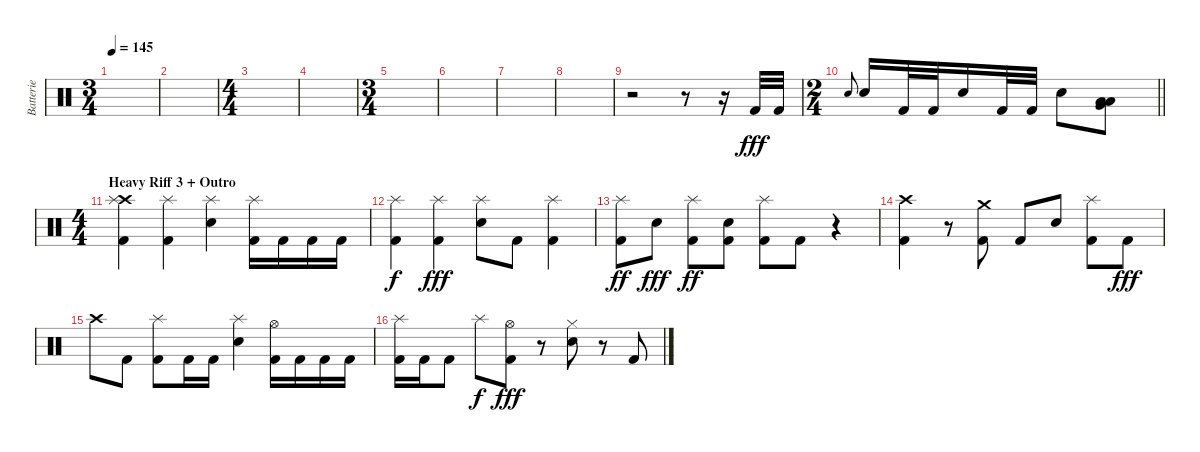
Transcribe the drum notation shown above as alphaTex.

\track ("Batterie" "Batterie") {instrument percussion}
\staff {score}
\articulation defaults
\ts (3 4)
\tempo 145
\clef neutral
\ks c
|
|
\ts (4 4)
|
|
\ts (3 4)
|
|
|
|
r.2 r.8 r.16 "Kick (hit) 2".32{dy fff} "Kick (hit) 2".32 |
\ts (2 4)
\barLineRight lightlight "Electric Snare (hit)".8{gr onbeat} "Electric Snare (hit)".16 "Kick (hit) 2".32 "Kick (hit) 2".32 "Electric Snare (hit)".16 "Kick (hit) 2".32 "Kick (hit) 2".32 "Electric Snare (hit)".8
("Low Tom (hit)" "Very Low Tom (hit)" "Low Floor Tom (hit)").8 |
\ts (4 4)
\section ("" "Heavy Riff 3 + Outro")
("Crash high (hit)" "Splash (hit)" "Kick (hit) 2").4 ("Splash (hit)" "Kick (hit) 2").4 ("Splash (hit)" "Electric Snare (hit)").4 ("Splash (hit)" "Kick (hit) 2").16 "Kick (hit) 2".16 "Kick (hit) 2".16 "Kick (hit) 2".16 |
("Splash (hit)" "Kick (hit) 2").4{dy f} ("Splash (hit)" "Kick (hit) 2").4{dy fff} ("Splash (hit)" "Electric Snare (hit)").8 "Kick (hit) 2".8 ("Splash (hit)" "Kick (hit) 2").4 |
("Splash (hit)" "Kick (hit) 2").8{dy ff} "Electric Snare (hit)".8{dy fff} ("Splash (hit)" "Kick (hit) 2").8{dy ff} ("Electric Snare (hit)" "Kick (hit) 2").8 ("Splash (hit)" "Kick (hit) 2").8 "Kick (hit) 2".8 r.4 |
("Crash high (hit)" "Kick (hit) 2").4 r.8 ("Crash medium (hit)" "Kick (hit) 2").8 "Kick (hit) 2".8 "Electric Snare (hit)".8 ("Splash (hit)" "Kick (hit) 2").8 "Kick (hit) 2".8{dy fff} |
"Crash high (hit)".8 "Kick (hit) 2".8 ("Splash (hit)" "Kick (hit) 2").8 "Kick (hit) 2".16 "Kick (hit) 2".16 ("Splash (hit)" "Electric Snare (hit)").4 ("Hi-Hat (open)" "Kick (hit) 2").16 "Kick (hit) 2".16 "Kick (hit) 2".16 "Kick (hit) 2".16 |
("Splash (hit)" "Kick (hit) 2").16 "Kick (hit) 2".16 "Kick (hit) 2".8 "Splash (hit)".8{dy f} ("Hi-Hat (open)" "Kick (hit) 2").8{dy fff} r.8 ("Hi-Hat (closed)" "Electric Snare (hit)").8 r.8 "Kick (hit) 2".8
